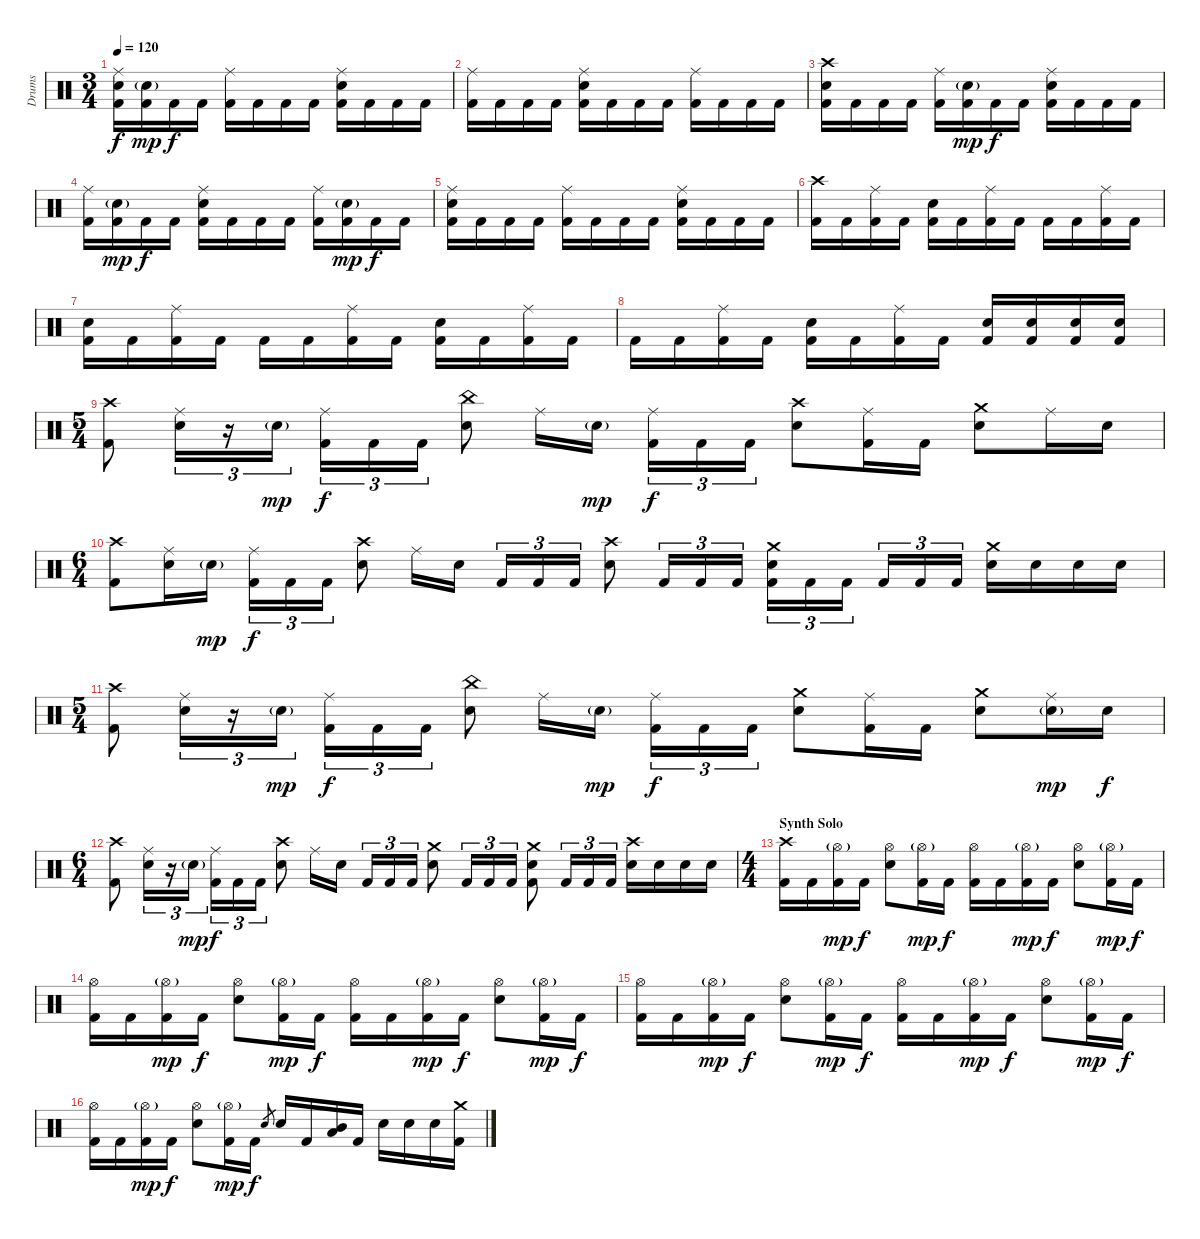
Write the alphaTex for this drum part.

\track ("Drums" "Drums") {instrument percussion}
\staff {score}
\articulation defaults
\ts (3 4)
\tempo 120
\clef neutral
\ks c
("Ride (middle)" "Snare (hit) 2" "Kick (hit) 2").16{dy f} ("Snare (hit) 2"{g} "Kick (hit) 2").16{dy mp} "Kick (hit) 2".16{dy f} "Kick (hit) 2".16 ("Ride (middle)" "Kick (hit) 2").16 "Kick (hit) 2".16 "Kick (hit) 2".16 "Kick (hit) 2".16 ("Ride (middle)" "Snare (hit) 2" "Kick (hit) 2").16 "Kick (hit) 2".16 "Kick (hit) 2".16 "Kick (hit) 2".16 |
("Ride (middle)" "Kick (hit) 2").16 "Kick (hit) 2".16 "Kick (hit) 2".16 "Kick (hit) 2".16 ("Ride (middle)" "Snare (hit) 2" "Kick (hit) 2").16 "Kick (hit) 2".16 "Kick (hit) 2".16 "Kick (hit) 2".16 ("Ride (middle)" "Kick (hit) 2").16 "Kick (hit) 2".16 "Kick (hit) 2".16 "Kick (hit) 2".16 |
("Crash high (hit)" "Snare (hit) 2" "Kick (hit) 2").16 "Kick (hit) 2".16 "Kick (hit) 2".16 "Kick (hit) 2".16 ("Ride (middle)" "Kick (hit) 2").16 ("Snare (hit) 2"{g} "Kick (hit) 2").16{dy mp} "Kick (hit) 2".16{dy f} "Kick (hit) 2".16 ("Ride (middle)" "Snare (hit) 2" "Kick (hit) 2").16 "Kick (hit) 2".16 "Kick (hit) 2".16 "Kick (hit) 2".16 |
("Ride (middle)" "Kick (hit) 2").16 ("Snare (hit) 2"{g} "Kick (hit) 2").16{dy mp} "Kick (hit) 2".16{dy f} "Kick (hit) 2".16 ("Ride (middle)" "Snare (hit) 2" "Kick (hit) 2").16 "Kick (hit) 2".16 "Kick (hit) 2".16 "Kick (hit) 2".16 ("Ride (middle)" "Kick (hit) 2").16 ("Snare (hit) 2"{g} "Kick (hit) 2").16{dy mp} "Kick (hit) 2".16{dy f} "Kick (hit) 2".16 |
("Ride (middle)" "Snare (hit) 2" "Kick (hit) 2").16 "Kick (hit) 2".16 "Kick (hit) 2".16 "Kick (hit) 2".16 ("Ride (middle)" "Kick (hit) 2").16 "Kick (hit) 2".16 "Kick (hit) 2".16 "Kick (hit) 2".16 ("Ride (middle)" "Snare (hit) 2" "Kick (hit) 2").16 "Kick (hit) 2".16 "Kick (hit) 2".16 "Kick (hit) 2".16 |
("Crash high (hit)" "Kick (hit) 2").16 "Kick (hit) 2".16 ("Ride (middle)" "Kick (hit) 2").16 "Kick (hit) 2".16 ("Snare (hit) 2" "Kick (hit) 2").16 "Kick (hit) 2".16 ("Ride (middle)" "Kick (hit) 2").16 "Kick (hit) 2".16 "Kick (hit) 2".16 "Kick (hit) 2".16 ("Ride (middle)" "Kick (hit) 2").16 "Kick (hit) 2".16 |
("Snare (hit) 2" "Kick (hit) 2").16 "Kick (hit) 2".16 ("Ride (middle)" "Kick (hit) 2").16 "Kick (hit) 2".16 "Kick (hit) 2".16 "Kick (hit) 2".16 ("Ride (middle)" "Kick (hit) 2").16 "Kick (hit) 2".16 ("Snare (hit) 2" "Kick (hit) 2").16 "Kick (hit) 2".16 ("Ride (middle)" "Kick (hit) 2").16 "Kick (hit) 2".16 |
"Kick (hit) 2".16 "Kick (hit) 2".16 ("Ride (middle)" "Kick (hit) 2").16 "Kick (hit) 2".16 ("Snare (hit) 2" "Kick (hit) 2").16 "Kick (hit) 2".16 ("Ride (middle)" "Kick (hit) 2").16 "Kick (hit) 2".16 ("Snare (hit) 2" "Kick (hit) 2").16 ("Snare (hit) 2" "Kick (hit) 2").16 ("Snare (hit) 2" "Kick (hit) 2").16 ("Snare (hit) 2" "Kick (hit) 2").16 |
\ts (5 4)
("Crash high (hit)" "Kick (hit) 2").8 ("Ride (middle)" "Snare (hit) 2").16{tu (3 2)} r.16{tu (3 2)} "Snare (hit) 2"{g}.16{tu (3 2) dy mp} ("Ride (middle)" "Kick (hit) 2").16{tu (3 2) dy f} "Kick (hit) 2".16{tu (3 2)} "Kick (hit) 2".16{tu (3 2)} ("China (hit)" "Snare (hit) 2").8 "Ride (middle)".16 "Snare (hit) 2"{g}.16{dy mp} ("Ride (middle)" "Kick (hit) 2").16{tu (3 2) dy f} "Kick (hit) 2".16{tu (3 2)} "Kick (hit) 2".16{tu (3 2)} ("Crash high (hit)" "Snare (hit) 2").8 ("Ride (middle)" "Kick (hit) 2").16 "Kick (hit) 2".16 ("Crash medium (hit)" "Snare (hit) 2").8 "Ride (middle)".16 "Snare (hit) 2".16 |
\ts (6 4)
("Crash high (hit)" "Kick (hit) 2").8 ("Ride (middle)" "Snare (hit) 2").16 "Snare (hit) 2"{g}.16{dy mp} ("Ride (middle)" "Kick (hit) 2").16{tu (3 2) dy f} "Kick (hit) 2".16{tu (3 2)} "Kick (hit) 2".16{tu (3 2)} ("Crash high (hit)" "Snare (hit) 2").8 "Ride (middle)".16 "Snare (hit) 2".16 "Kick (hit) 2".16{tu (3 2)} "Kick (hit) 2".16{tu (3 2)} "Kick (hit) 2".16{tu (3 2)} ("Crash high (hit)" "Snare (hit) 2").8 "Kick (hit) 2".16{tu (3 2)} "Kick (hit) 2".16{tu (3 2)} "Kick (hit) 2".16{tu (3 2)} ("Crash medium (hit)" "Snare (hit) 2" "Kick (hit) 2").16{tu (3 2)} "Kick (hit) 2".16{tu (3 2)} "Kick (hit) 2".16{tu (3 2)} "Kick (hit) 2".16{tu (3 2)} "Kick (hit) 2".16{tu (3 2)} "Kick (hit) 2".16{tu (3 2)} ("Crash medium (hit)" "Snare (hit) 2").16 "Snare (hit) 2".16 "Snare (hit) 2".16 "Snare (hit) 2".16 |
\ts (5 4)
("Crash high (hit)" "Kick (hit) 2").8 ("Ride (middle)" "Snare (hit) 2").16{tu (3 2)} r.16{tu (3 2)} "Snare (hit) 2"{g}.16{tu (3 2) dy mp} ("Ride (middle)" "Kick (hit) 2").16{tu (3 2) dy f} "Kick (hit) 2".16{tu (3 2)} "Kick (hit) 2".16{tu (3 2)} ("China (hit)" "Snare (hit) 2").8 "Ride (middle)".16 "Snare (hit) 2"{g}.16{dy mp} ("Ride (middle)" "Kick (hit) 2").16{tu (3 2) dy f} "Kick (hit) 2".16{tu (3 2)} "Kick (hit) 2".16{tu (3 2)} ("Crash medium (hit)" "Snare (hit) 2").8 ("Ride (middle)" "Kick (hit) 2").16 "Kick (hit) 2".16 ("Crash medium (hit)" "Snare (hit) 2").8 ("Ride (middle)" "Snare (hit) 2"{g}).16{dy mp} "Snare (hit) 2".16{dy f} |
\ts (6 4)
("Crash high (hit)" "Kick (hit) 2").8 ("Ride (middle)" "Snare (hit) 2").16{tu (3 2)} r.16{tu (3 2)} "Snare (hit) 2"{g}.16{tu (3 2) dy mp} ("Ride (middle)" "Kick (hit) 2").16{tu (3 2) dy f} "Kick (hit) 2".16{tu (3 2)} "Kick (hit) 2".16{tu (3 2)} ("Crash high (hit)" "Snare (hit) 2").8 "Ride (middle)".16 "Snare (hit) 2".16 "Kick (hit) 2".16{tu (3 2)} "Kick (hit) 2".16{tu (3 2)} "Kick (hit) 2".16{tu (3 2)} ("Crash medium (hit)" "Snare (hit) 2").8 "Kick (hit) 2".16{tu (3 2)} "Kick (hit) 2".16{tu (3 2)} "Kick (hit) 2".16{tu (3 2)} ("Crash medium (hit)" "Snare (hit) 2" "Kick (hit) 2").8 "Kick (hit) 2".16{tu (3 2)} "Kick (hit) 2".16{tu (3 2)} "Kick (hit) 2".16{tu (3 2)} ("Crash high (hit)" "Snare (hit) 2").16 "Snare (hit) 2".16 "Snare (hit) 2".16 "Snare (hit) 2".16 |
\ts (4 4)
\section ("" "Synth Solo")
("Crash high (hit)" "Kick (hit) 2").16 "Kick (hit) 2".16 ("Hi-Hat (open)"{g} "Kick (hit) 2").16{dy mp} "Kick (hit) 2".16{dy f} ("Hi-Hat (open)" "Snare (hit) 2").8 ("Hi-Hat (open)"{g} "Kick (hit) 2").16{dy mp} "Kick (hit) 2".16{dy f} ("Hi-Hat (open)" "Kick (hit) 2").16 "Kick (hit) 2".16 ("Hi-Hat (open)"{g} "Kick (hit) 2").16{dy mp} "Kick (hit) 2".16{dy f} ("Hi-Hat (open)" "Snare (hit) 2").8 ("Hi-Hat (open)"{g} "Kick (hit) 2").16{dy mp} "Kick (hit) 2".16{dy f} |
("Hi-Hat (open)" "Kick (hit) 2").16 "Kick (hit) 2".16 ("Hi-Hat (open)"{g} "Kick (hit) 2").16{dy mp} "Kick (hit) 2".16{dy f} ("Hi-Hat (open)" "Snare (hit) 2").8 ("Hi-Hat (open)"{g} "Kick (hit) 2").16{dy mp} "Kick (hit) 2".16{dy f} ("Hi-Hat (open)" "Kick (hit) 2").16 "Kick (hit) 2".16 ("Hi-Hat (open)"{g} "Kick (hit) 2").16{dy mp} "Kick (hit) 2".16{dy f} ("Hi-Hat (open)" "Snare (hit) 2").8 ("Hi-Hat (open)"{g} "Kick (hit) 2").16{dy mp} "Kick (hit) 2".16{dy f} |
("Hi-Hat (open)" "Kick (hit) 2").16 "Kick (hit) 2".16 ("Hi-Hat (open)"{g} "Kick (hit) 2").16{dy mp} "Kick (hit) 2".16{dy f} ("Hi-Hat (open)" "Snare (hit) 2").8 ("Hi-Hat (open)"{g} "Kick (hit) 2").16{dy mp} "Kick (hit) 2".16{dy f} ("Hi-Hat (open)" "Kick (hit) 2").16 "Kick (hit) 2".16 ("Hi-Hat (open)"{g} "Kick (hit) 2").16{dy mp} "Kick (hit) 2".16{dy f} ("Hi-Hat (open)" "Snare (hit) 2").8 ("Hi-Hat (open)"{g} "Kick (hit) 2").16{dy mp} "Kick (hit) 2".16{dy f} |
("Hi-Hat (open)" "Kick (hit) 2").16 "Kick (hit) 2".16 ("Hi-Hat (open)"{g} "Kick (hit) 2").16{dy mp} "Kick (hit) 2".16{dy f} ("Hi-Hat (open)" "Snare (hit) 2").8 ("Hi-Hat (open)"{g} "Kick (hit) 2").16{dy mp} "Kick (hit) 2".16{dy f} "Snare (hit) 2".8{gr} "Snare (hit) 2".16 "Kick (hit) 2".16 ("Mid Tom (hit)" "Low Tom (hit)").16 "Kick (hit) 2".16 "Snare (hit) 2".16 "Snare (hit) 2".16 "Snare (hit) 2".16 ("Crash medium (hit)" "Kick (hit) 2").16
